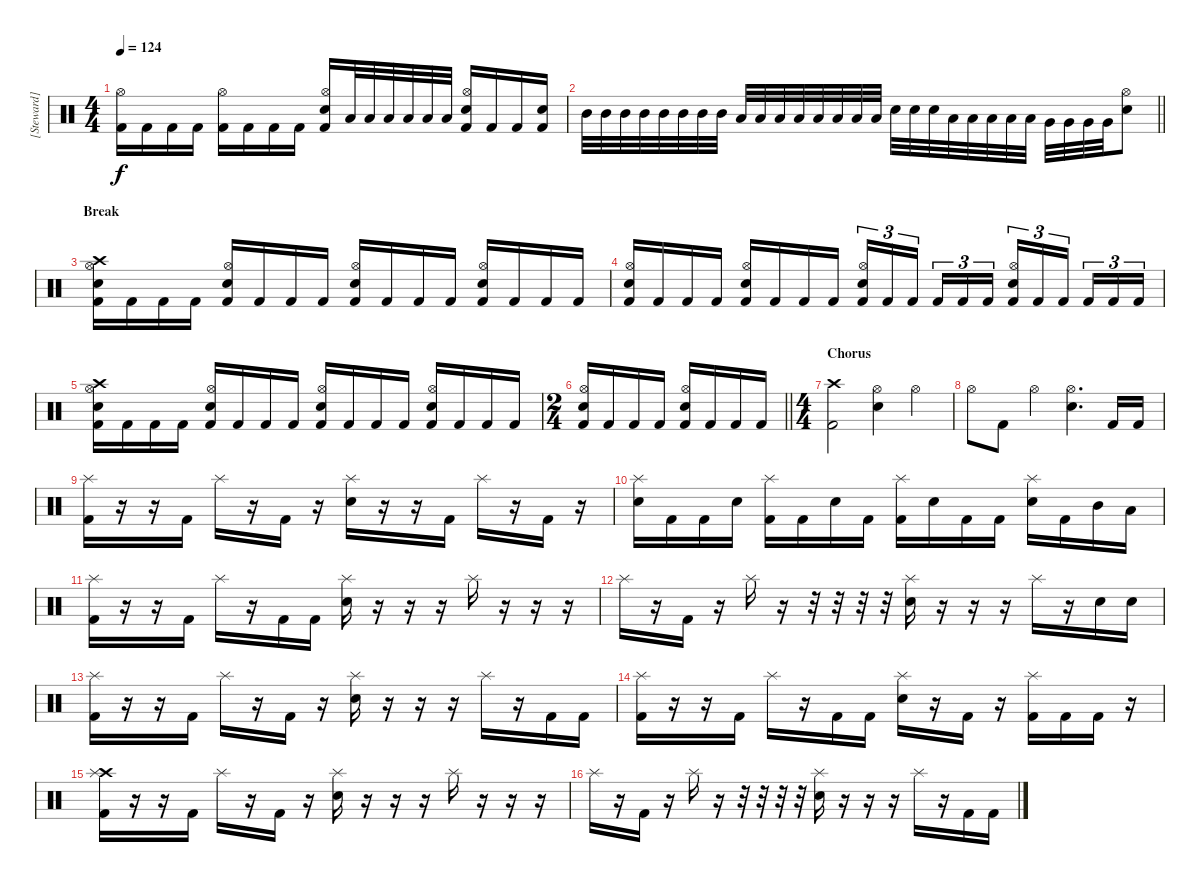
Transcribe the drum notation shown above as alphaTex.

\track ("[Steward]" "[Steward]") {solo instrument percussion}
\staff {score}
\articulation defaults
\ts (4 4)
\tempo 124
\clef neutral
\ks c
("Kick (hit) 2" "Hi-Hat (open)").16{dy f} "Kick (hit) 2".16 "Kick (hit) 2".16 "Kick (hit) 2".16 ("Kick (hit) 2" "Hi-Hat (open)").16 "Kick (hit) 2".16 "Kick (hit) 2".16 "Kick (hit) 2".16 ("Electric Snare (hit)" "Kick (hit) 2" "Hi-Hat (open)").16 "Low Tom (hit)".32 "Low Tom (hit)".32 "Low Tom (hit)".32 "Low Tom (hit)".32 "Low Tom (hit)".32 "Low Tom (hit)".32 ("Electric Snare (hit)" "Kick (hit) 2" "Hi-Hat (open)").16 "Kick (hit) 2".16 "Kick (hit) 2".16 ("Electric Snare (hit)" "Kick (hit) 2").16 |
\barLineRight lightlight "Mid Tom (hit)".32 "Mid Tom (hit)".32 "Mid Tom (hit)".32 "Mid Tom (hit)".32 "Mid Tom (hit)".32 "Mid Tom (hit)".32 "Mid Tom (hit)".32 "Mid Tom (hit)".32 "Low Tom (hit)".32 "Low Tom (hit)".32 "Low Tom (hit)".32 "Low Tom (hit)".32 "Low Tom (hit)".32 "Low Tom (hit)".32 "Low Tom (hit)".32 "Low Tom (hit)".32 "Electric Snare (hit)".32 "Electric Snare (hit)".32 "Electric Snare (hit)".32 "Low Tom (hit)".32 "Low Tom (hit)".32 "Low Tom (hit)".32 "Low Tom (hit)".32 "Low Tom (hit)".32 "Very Low Tom (hit)".32 "Very Low Tom (hit)".32 "Very Low Tom (hit)".32 "Very Low Tom (hit)".32
("Electric Snare (hit)" "Hi-Hat (open)").8 |
\section ("" "Break")
("Crash high (hit)" "Electric Snare (hit)" "Kick (hit) 2" "Hi-Hat (open)").16 "Kick (hit) 2".16 "Kick (hit) 2".16 "Kick (hit) 2".16 ("Electric Snare (hit)" "Kick (hit) 2" "Hi-Hat (open)").16 "Kick (hit) 2".16 "Kick (hit) 2".16 "Kick (hit) 2".16 ("Electric Snare (hit)" "Kick (hit) 2" "Hi-Hat (open)").16 "Kick (hit) 2".16 "Kick (hit) 2".16 "Kick (hit) 2".16 ("Electric Snare (hit)" "Kick (hit) 2" "Hi-Hat (open)").16 "Kick (hit) 2".16 "Kick (hit) 2".16 "Kick (hit) 2".16 |
("Electric Snare (hit)" "Kick (hit) 2" "Hi-Hat (open)").16 "Kick (hit) 2".16 "Kick (hit) 2".16 "Kick (hit) 2".16 ("Electric Snare (hit)" "Kick (hit) 2" "Hi-Hat (open)").16 "Kick (hit) 2".16 "Kick (hit) 2".16 "Kick (hit) 2".16 ("Electric Snare (hit)" "Kick (hit) 2" "Hi-Hat (open)").16{tu (3 2)} "Kick (hit) 2".16{tu (3 2)} "Kick (hit) 2".16{tu (3 2) beam splitsecondary} "Kick (hit) 2".16{tu (3 2)} "Kick (hit) 2".16{tu (3 2)} "Kick (hit) 2".16{tu (3 2)} ("Electric Snare (hit)" "Kick (hit) 2" "Hi-Hat (open)").16{tu (3 2)} "Kick (hit) 2".16{tu (3 2)} "Kick (hit) 2".16{tu (3 2) beam splitsecondary} "Kick (hit) 2".16{tu (3 2)} "Kick (hit) 2".16{tu (3 2)} "Kick (hit) 2".16{tu (3 2)} |
("Crash high (hit)" "Electric Snare (hit)" "Kick (hit) 2" "Hi-Hat (open)").16 "Kick (hit) 2".16 "Kick (hit) 2".16 "Kick (hit) 2".16 ("Electric Snare (hit)" "Kick (hit) 2" "Hi-Hat (open)").16 "Kick (hit) 2".16 "Kick (hit) 2".16 "Kick (hit) 2".16 ("Electric Snare (hit)" "Kick (hit) 2" "Hi-Hat (open)").16 "Kick (hit) 2".16 "Kick (hit) 2".16 "Kick (hit) 2".16 ("Electric Snare (hit)" "Kick (hit) 2" "Hi-Hat (open)").16 "Kick (hit) 2".16 "Kick (hit) 2".16 "Kick (hit) 2".16 |
\ts (2 4)
\barLineRight lightlight
("Electric Snare (hit)" "Kick (hit) 2" "Hi-Hat (open)").16 "Kick (hit) 2".16 "Kick (hit) 2".16 "Kick (hit) 2".16 ("Electric Snare (hit)" "Kick (hit) 2" "Hi-Hat (open)").16 "Kick (hit) 2".16 "Kick (hit) 2".16 "Kick (hit) 2".16 |
\ts (4 4)
\section ("" "Chorus")
("Crash high (hit)" "Kick (hit) 2").2 ("Electric Snare (hit)" "Hi-Hat (open)").4 "Hi-Hat (open)".4 |
"Hi-Hat (open)".8 "Kick (hit) 2".8 "Hi-Hat (open)".4 ("Electric Snare (hit)" "Hi-Hat (open)").4{d} "Kick (hit) 2".16 "Kick (hit) 2".16 |
("Kick (hit) 2" "Splash (hit)").16 r.16 r.16 "Kick (hit) 2".16 "Splash (hit)".16 r.16 "Kick (hit) 2".16 r.16 ("Electric Snare (hit)" "Splash (hit)").16 r.16 r.16 "Kick (hit) 2".16 "Splash (hit)".16 r.16 "Kick (hit) 2".16 r.16 |
("Electric Snare (hit)" "Splash (hit)").16 "Kick (hit) 2".16 "Kick (hit) 2".16 "Electric Snare (hit)".16 ("Kick (hit) 2" "Splash (hit)").16 "Kick (hit) 2".16 "Electric Snare (hit)".16 "Kick (hit) 2".16 ("Kick (hit) 2" "Splash (hit)").16 "Electric Snare (hit)".16 "Kick (hit) 2".16 "Kick (hit) 2".16 ("Electric Snare (hit)" "Splash (hit)").16 "Kick (hit) 2".16 "Mid Tom (hit)".16 "Low Tom (hit)".16 |
("Kick (hit) 2" "Splash (hit)").16 r.16 r.16 "Kick (hit) 2".16 "Splash (hit)".16 r.16 "Kick (hit) 2".16 "Kick (hit) 2".16 ("Electric Snare (hit)" "Splash (hit)").16 r.16 r.16 r.16 "Splash (hit)".16 r.16 r.16 r.16 |
"Splash (hit)".16 r.16 "Kick (hit) 2".16 r.16 "Splash (hit)".16 r.16 r.32 r.32 r.32 r.32 ("Electric Snare (hit)" "Splash (hit)").16 r.16 r.16 r.16 "Splash (hit)".16 r.16 "Electric Snare (hit)".16 "Electric Snare (hit)".16 |
("Kick (hit) 2" "Splash (hit)").16 r.16 r.16 "Kick (hit) 2".16 "Splash (hit)".16 r.16 "Kick (hit) 2".16 r.16 ("Electric Snare (hit)" "Splash (hit)").16 r.16 r.16 r.16 "Splash (hit)".16 r.16 "Kick (hit) 2".16 "Kick (hit) 2".16 |
("Kick (hit) 2" "Splash (hit)").16 r.16 r.16 "Kick (hit) 2".16 "Splash (hit)".16 r.16 "Kick (hit) 2".16 "Kick (hit) 2".16 ("Electric Snare (hit)" "Splash (hit)").16 r.16 "Kick (hit) 2".16 r.16 ("Kick (hit) 2" "Splash (hit)").16 "Kick (hit) 2".16 "Kick (hit) 2".16 r.16 |
("Crash high (hit)" "Kick (hit) 2" "Splash (hit)").16 r.16 r.16 "Kick (hit) 2".16 "Splash (hit)".16 r.16 "Kick (hit) 2".16 r.16 ("Electric Snare (hit)" "Splash (hit)").16 r.16 r.16 r.16 "Splash (hit)".16 r.16 r.16 r.16 |
"Splash (hit)".16 r.16 "Kick (hit) 2".16 r.16 "Splash (hit)".16 r.16 r.32 r.32 r.32 r.32 ("Electric Snare (hit)" "Splash (hit)").16 r.16 r.16 r.16 "Splash (hit)".16 r.16 "Kick (hit) 2".16 "Kick (hit) 2".16
